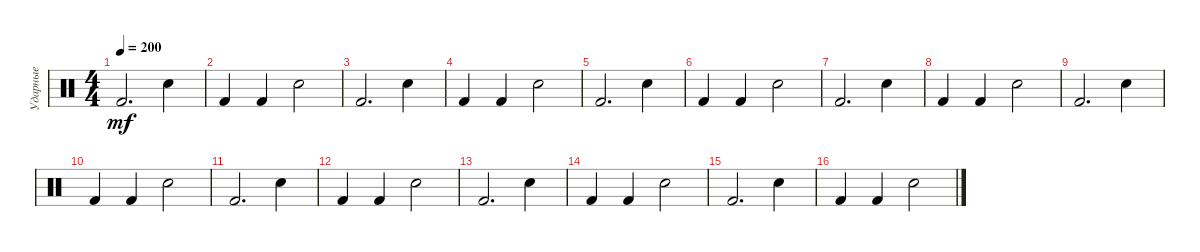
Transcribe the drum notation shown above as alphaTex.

\track ("Ударные" "Ударные") {instrument percussion}
\staff {score}
\articulation defaults
\ts (4 4)
\tempo 200
\clef neutral
\ks c "Kick (hit) 2".2{d dy mf} "Snare (hit) 2".4
|
"Kick (hit) 2".4 "Kick (hit) 2".4 "Snare (hit) 2".2 |
"Kick (hit) 2".2{d} "Snare (hit) 2".4 |
"Kick (hit) 2".4 "Kick (hit) 2".4 "Snare (hit) 2".2 |
"Kick (hit) 2".2{d} "Snare (hit) 2".4 |
"Kick (hit) 2".4 "Kick (hit) 2".4 "Snare (hit) 2".2 |
"Kick (hit) 2".2{d} "Snare (hit) 2".4 |
"Kick (hit) 2".4 "Kick (hit) 2".4 "Snare (hit) 2".2 |
"Kick (hit) 2".2{d} "Snare (hit) 2".4 |
"Kick (hit) 2".4 "Kick (hit) 2".4 "Snare (hit) 2".2 |
"Kick (hit) 2".2{d} "Snare (hit) 2".4 |
"Kick (hit) 2".4 "Kick (hit) 2".4 "Snare (hit) 2".2 |
"Kick (hit) 2".2{d} "Snare (hit) 2".4 |
"Kick (hit) 2".4 "Kick (hit) 2".4 "Snare (hit) 2".2 |
"Kick (hit) 2".2{d} "Snare (hit) 2".4 |
"Kick (hit) 2".4 "Kick (hit) 2".4 "Snare (hit) 2".2
